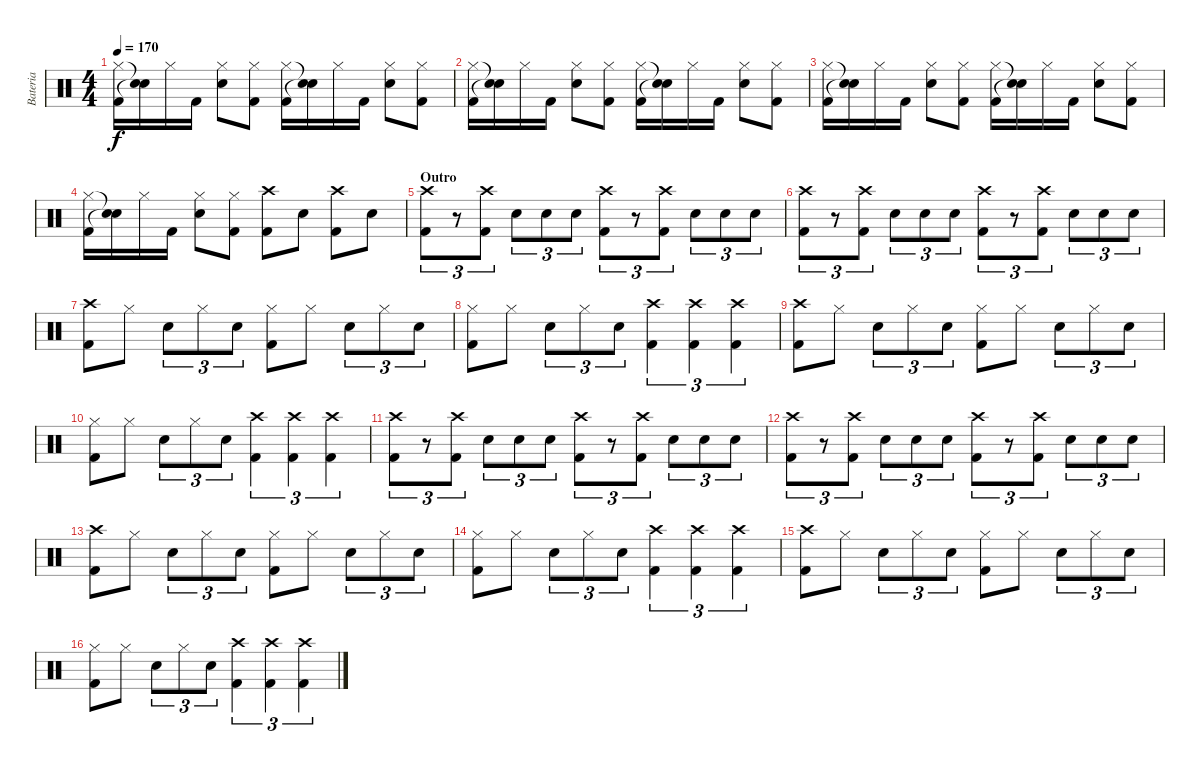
\track ("Bateria" "Bateria") {instrument percussion}
\staff {score}
\articulation defaults
\ts (4 4)
\tempo 170
\clef neutral
\ks c
("Hi-Hat (closed)" "Kick (hit) 2").16{dy f} ("Snare (hit)"{t} "Snare (hit)"{t}).16 "Hi-Hat (closed)".16 "Kick (hit) 2".16 ("Hi-Hat (closed)" "Snare (hit) 2").8 ("Hi-Hat (closed)" "Kick (hit) 2").8 ("Hi-Hat (closed)" "Kick (hit) 2").16 ("Snare (hit)"{t} "Snare (hit)"{t}).16 "Hi-Hat (closed)".16 "Kick (hit) 2".16 ("Hi-Hat (closed)" "Snare (hit) 2").8 ("Hi-Hat (closed)" "Kick (hit) 2").8 |
("Hi-Hat (closed)" "Kick (hit) 2").16 ("Snare (hit)"{t} "Snare (hit)"{t}).16 "Hi-Hat (closed)".16 "Kick (hit) 2".16 ("Hi-Hat (closed)" "Snare (hit) 2").8 ("Hi-Hat (closed)" "Kick (hit) 2").8 ("Hi-Hat (closed)" "Kick (hit) 2").16 ("Snare (hit)"{t} "Snare (hit)"{t}).16 "Hi-Hat (closed)".16 "Kick (hit) 2".16 ("Hi-Hat (closed)" "Snare (hit) 2").8 ("Hi-Hat (closed)" "Kick (hit) 2").8 |
("Hi-Hat (closed)" "Kick (hit) 2").16 ("Snare (hit)"{t} "Snare (hit)"{t}).16 "Hi-Hat (closed)".16 "Kick (hit) 2".16 ("Hi-Hat (closed)" "Snare (hit) 2").8 ("Hi-Hat (closed)" "Kick (hit) 2").8 ("Hi-Hat (closed)" "Kick (hit) 2").16 ("Snare (hit)"{t} "Snare (hit)"{t}).16 "Hi-Hat (closed)".16 "Kick (hit) 2".16 ("Hi-Hat (closed)" "Snare (hit) 2").8 ("Hi-Hat (closed)" "Kick (hit) 2").8 |
("Hi-Hat (closed)" "Kick (hit) 2").16 ("Snare (hit)"{t} "Snare (hit)"{t}).16 "Hi-Hat (closed)".16 "Kick (hit) 2".16 ("Hi-Hat (closed)" "Snare (hit) 2").8 ("Hi-Hat (closed)" "Kick (hit) 2").8 ("Crash high (hit)" "Kick (hit) 2").8 "Snare (hit) 2".8 ("Crash high (hit)" "Kick (hit) 2").8 "Snare (hit) 2".8 |
\section ("" "Outro")
("Crash high (hit)" "Kick (hit) 2").8{tu (3 2)} r.8{tu (3 2)} ("Crash high (hit)" "Kick (hit) 2").8{tu (3 2)} "Snare (hit) 2".8{tu (3 2)} "Snare (hit) 2".8{tu (3 2)} "Snare (hit) 2".8{tu (3 2)} ("Crash high (hit)" "Kick (hit) 2").8{tu (3 2)} r.8{tu (3 2)} ("Crash high (hit)" "Kick (hit) 2").8{tu (3 2)} "Snare (hit) 2".8{tu (3 2)} "Snare (hit) 2".8{tu (3 2)} "Snare (hit) 2".8{tu (3 2)} |
("Crash high (hit)" "Kick (hit) 2").8{tu (3 2)} r.8{tu (3 2)} ("Crash high (hit)" "Kick (hit) 2").8{tu (3 2)} "Snare (hit) 2".8{tu (3 2)} "Snare (hit) 2".8{tu (3 2)} "Snare (hit) 2".8{tu (3 2)} ("Crash high (hit)" "Kick (hit) 2").8{tu (3 2)} r.8{tu (3 2)} ("Crash high (hit)" "Kick (hit) 2").8{tu (3 2)} "Snare (hit) 2".8{tu (3 2)} "Snare (hit) 2".8{tu (3 2)} "Snare (hit) 2".8{tu (3 2)} |
("Crash high (hit)" "Kick (hit) 2").8 "Hi-Hat (closed)".8 "Snare (hit) 2".8{tu (3 2)} "Hi-Hat (closed)".8{tu (3 2)} "Snare (hit) 2".8{tu (3 2)} ("Hi-Hat (closed)" "Kick (hit) 2").8 "Hi-Hat (closed)".8 "Snare (hit) 2".8{tu (3 2)} "Hi-Hat (closed)".8{tu (3 2)} "Snare (hit) 2".8{tu (3 2)} |
("Hi-Hat (closed)" "Kick (hit) 2").8 "Hi-Hat (closed)".8 "Snare (hit) 2".8{tu (3 2)} "Hi-Hat (closed)".8{tu (3 2)} "Snare (hit) 2".8{tu (3 2)} ("Crash high (hit)" "Kick (hit) 2").4{tu (3 2)} ("Crash high (hit)" "Kick (hit) 2").4{tu (3 2)} ("Crash high (hit)" "Kick (hit) 2").4{tu (3 2)} |
("Crash high (hit)" "Kick (hit) 2").8 "Hi-Hat (closed)".8 "Snare (hit) 2".8{tu (3 2)} "Hi-Hat (closed)".8{tu (3 2)} "Snare (hit) 2".8{tu (3 2)} ("Hi-Hat (closed)" "Kick (hit) 2").8 "Hi-Hat (closed)".8 "Snare (hit) 2".8{tu (3 2)} "Hi-Hat (closed)".8{tu (3 2)} "Snare (hit) 2".8{tu (3 2)} |
("Hi-Hat (closed)" "Kick (hit) 2").8 "Hi-Hat (closed)".8 "Snare (hit) 2".8{tu (3 2)} "Hi-Hat (closed)".8{tu (3 2)} "Snare (hit) 2".8{tu (3 2)} ("Crash high (hit)" "Kick (hit) 2").4{tu (3 2)} ("Crash high (hit)" "Kick (hit) 2").4{tu (3 2)} ("Crash high (hit)" "Kick (hit) 2").4{tu (3 2)} |
("Crash high (hit)" "Kick (hit) 2").8{tu (3 2)} r.8{tu (3 2)} ("Crash high (hit)" "Kick (hit) 2").8{tu (3 2)} "Snare (hit) 2".8{tu (3 2)} "Snare (hit) 2".8{tu (3 2)} "Snare (hit) 2".8{tu (3 2)} ("Crash high (hit)" "Kick (hit) 2").8{tu (3 2)} r.8{tu (3 2)} ("Crash high (hit)" "Kick (hit) 2").8{tu (3 2)} "Snare (hit) 2".8{tu (3 2)} "Snare (hit) 2".8{tu (3 2)} "Snare (hit) 2".8{tu (3 2)} |
("Crash high (hit)" "Kick (hit) 2").8{tu (3 2)} r.8{tu (3 2)} ("Crash high (hit)" "Kick (hit) 2").8{tu (3 2)} "Snare (hit) 2".8{tu (3 2)} "Snare (hit) 2".8{tu (3 2)} "Snare (hit) 2".8{tu (3 2)} ("Crash high (hit)" "Kick (hit) 2").8{tu (3 2)} r.8{tu (3 2)} ("Crash high (hit)" "Kick (hit) 2").8{tu (3 2)} "Snare (hit) 2".8{tu (3 2)} "Snare (hit) 2".8{tu (3 2)} "Snare (hit) 2".8{tu (3 2)} |
("Crash high (hit)" "Kick (hit) 2").8 "Hi-Hat (closed)".8 "Snare (hit) 2".8{tu (3 2)} "Hi-Hat (closed)".8{tu (3 2)} "Snare (hit) 2".8{tu (3 2)} ("Hi-Hat (closed)" "Kick (hit) 2").8 "Hi-Hat (closed)".8 "Snare (hit) 2".8{tu (3 2)} "Hi-Hat (closed)".8{tu (3 2)} "Snare (hit) 2".8{tu (3 2)} |
("Hi-Hat (closed)" "Kick (hit) 2").8 "Hi-Hat (closed)".8 "Snare (hit) 2".8{tu (3 2)} "Hi-Hat (closed)".8{tu (3 2)} "Snare (hit) 2".8{tu (3 2)} ("Crash high (hit)" "Kick (hit) 2").4{tu (3 2)} ("Crash high (hit)" "Kick (hit) 2").4{tu (3 2)} ("Crash high (hit)" "Kick (hit) 2").4{tu (3 2)} |
("Crash high (hit)" "Kick (hit) 2").8 "Hi-Hat (closed)".8 "Snare (hit) 2".8{tu (3 2)} "Hi-Hat (closed)".8{tu (3 2)} "Snare (hit) 2".8{tu (3 2)} ("Hi-Hat (closed)" "Kick (hit) 2").8 "Hi-Hat (closed)".8 "Snare (hit) 2".8{tu (3 2)} "Hi-Hat (closed)".8{tu (3 2)} "Snare (hit) 2".8{tu (3 2)} |
("Hi-Hat (closed)" "Kick (hit) 2").8 "Hi-Hat (closed)".8 "Snare (hit) 2".8{tu (3 2)} "Hi-Hat (closed)".8{tu (3 2)} "Snare (hit) 2".8{tu (3 2)} ("Crash high (hit)" "Kick (hit) 2").4{tu (3 2)} ("Crash high (hit)" "Kick (hit) 2").4{tu (3 2)} ("Crash high (hit)" "Kick (hit) 2").4{tu (3 2)}
